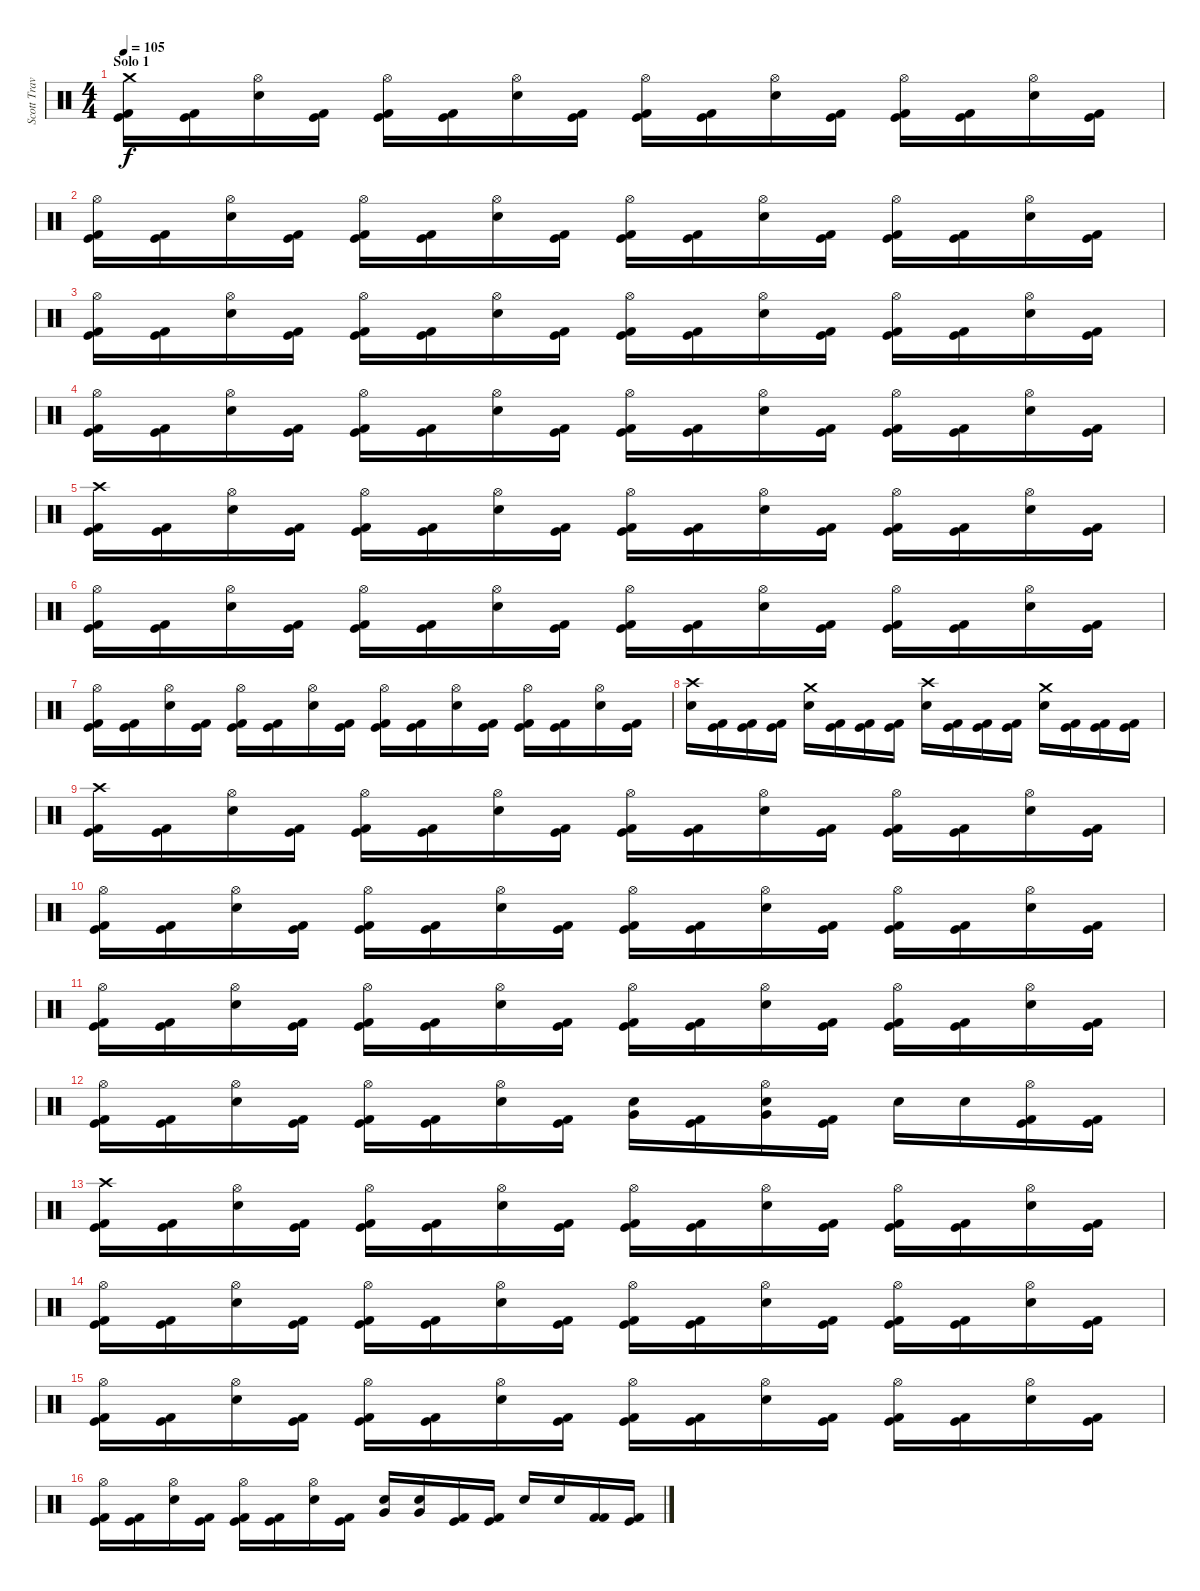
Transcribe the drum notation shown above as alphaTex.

\track ("Scott Travis" "Scott Trav") {instrument percussion}
\staff {score}
\articulation defaults
\ts (4 4)
\section ("" "Solo 1")
\tempo 105
\clef neutral
\ks c
("Crash medium (hit)" "Kick (hit) 2" "Kick (hit)").16{dy f} ("Kick (hit) 2" "Kick (hit)").16 ("Hi-Hat (open)" "Snare (hit) 2").16 ("Kick (hit) 2" "Kick (hit)").16 ("Hi-Hat (open)" "Kick (hit) 2" "Kick (hit)").16 ("Kick (hit) 2" "Kick (hit)").16 ("Hi-Hat (open)" "Snare (hit) 2").16 ("Kick (hit) 2" "Kick (hit)").16 ("Hi-Hat (open)" "Kick (hit) 2" "Kick (hit)").16 ("Kick (hit) 2" "Kick (hit)").16 ("Hi-Hat (open)" "Snare (hit) 2").16 ("Kick (hit) 2" "Kick (hit)").16 ("Hi-Hat (open)" "Kick (hit) 2" "Kick (hit)").16 ("Kick (hit) 2" "Kick (hit)").16 ("Hi-Hat (open)" "Snare (hit) 2").16 ("Kick (hit) 2" "Kick (hit)").16 |
("Hi-Hat (open)" "Kick (hit) 2" "Kick (hit)").16 ("Kick (hit) 2" "Kick (hit)").16 ("Hi-Hat (open)" "Snare (hit) 2").16 ("Kick (hit) 2" "Kick (hit)").16 ("Hi-Hat (open)" "Kick (hit) 2" "Kick (hit)").16 ("Kick (hit) 2" "Kick (hit)").16 ("Hi-Hat (open)" "Snare (hit) 2").16 ("Kick (hit) 2" "Kick (hit)").16 ("Hi-Hat (open)" "Kick (hit) 2" "Kick (hit)").16 ("Kick (hit) 2" "Kick (hit)").16 ("Hi-Hat (open)" "Snare (hit) 2").16 ("Kick (hit) 2" "Kick (hit)").16 ("Hi-Hat (open)" "Kick (hit) 2" "Kick (hit)").16 ("Kick (hit) 2" "Kick (hit)").16 ("Hi-Hat (open)" "Snare (hit) 2").16 ("Kick (hit) 2" "Kick (hit)").16 |
("Hi-Hat (open)" "Kick (hit) 2" "Kick (hit)").16 ("Kick (hit) 2" "Kick (hit)").16 ("Hi-Hat (open)" "Snare (hit) 2").16 ("Kick (hit) 2" "Kick (hit)").16 ("Hi-Hat (open)" "Kick (hit) 2" "Kick (hit)").16 ("Kick (hit) 2" "Kick (hit)").16 ("Hi-Hat (open)" "Snare (hit) 2").16 ("Kick (hit) 2" "Kick (hit)").16 ("Hi-Hat (open)" "Kick (hit) 2" "Kick (hit)").16 ("Kick (hit) 2" "Kick (hit)").16 ("Hi-Hat (open)" "Snare (hit) 2").16 ("Kick (hit) 2" "Kick (hit)").16 ("Hi-Hat (open)" "Kick (hit) 2" "Kick (hit)").16 ("Kick (hit) 2" "Kick (hit)").16 ("Hi-Hat (open)" "Snare (hit) 2").16 ("Kick (hit) 2" "Kick (hit)").16 |
("Hi-Hat (open)" "Kick (hit) 2" "Kick (hit)").16 ("Kick (hit) 2" "Kick (hit)").16 ("Hi-Hat (open)" "Snare (hit) 2").16 ("Kick (hit) 2" "Kick (hit)").16 ("Hi-Hat (open)" "Kick (hit) 2" "Kick (hit)").16 ("Kick (hit) 2" "Kick (hit)").16 ("Hi-Hat (open)" "Snare (hit) 2").16 ("Kick (hit) 2" "Kick (hit)").16 ("Hi-Hat (open)" "Kick (hit) 2" "Kick (hit)").16 ("Kick (hit) 2" "Kick (hit)").16 ("Hi-Hat (open)" "Snare (hit) 2").16 ("Kick (hit) 2" "Kick (hit)").16 ("Hi-Hat (open)" "Kick (hit) 2" "Kick (hit)").16 ("Kick (hit) 2" "Kick (hit)").16 ("Hi-Hat (open)" "Snare (hit) 2").16 ("Kick (hit) 2" "Kick (hit)").16 |
("Crash high (hit)" "Kick (hit) 2" "Kick (hit)").16 ("Kick (hit) 2" "Kick (hit)").16 ("Hi-Hat (open)" "Snare (hit) 2").16 ("Kick (hit) 2" "Kick (hit)").16 ("Hi-Hat (open)" "Kick (hit) 2" "Kick (hit)").16 ("Kick (hit) 2" "Kick (hit)").16 ("Hi-Hat (open)" "Snare (hit) 2").16 ("Kick (hit) 2" "Kick (hit)").16 ("Hi-Hat (open)" "Kick (hit) 2" "Kick (hit)").16 ("Kick (hit) 2" "Kick (hit)").16 ("Hi-Hat (open)" "Snare (hit) 2").16 ("Kick (hit) 2" "Kick (hit)").16 ("Hi-Hat (open)" "Kick (hit) 2" "Kick (hit)").16 ("Kick (hit) 2" "Kick (hit)").16 ("Hi-Hat (open)" "Snare (hit) 2").16 ("Kick (hit) 2" "Kick (hit)").16 |
("Hi-Hat (open)" "Kick (hit) 2" "Kick (hit)").16 ("Kick (hit) 2" "Kick (hit)").16 ("Hi-Hat (open)" "Snare (hit) 2").16 ("Kick (hit) 2" "Kick (hit)").16 ("Hi-Hat (open)" "Kick (hit) 2" "Kick (hit)").16 ("Kick (hit) 2" "Kick (hit)").16 ("Hi-Hat (open)" "Snare (hit) 2").16 ("Kick (hit) 2" "Kick (hit)").16 ("Hi-Hat (open)" "Kick (hit) 2" "Kick (hit)").16 ("Kick (hit) 2" "Kick (hit)").16 ("Hi-Hat (open)" "Snare (hit) 2").16 ("Kick (hit) 2" "Kick (hit)").16 ("Hi-Hat (open)" "Kick (hit) 2" "Kick (hit)").16 ("Kick (hit) 2" "Kick (hit)").16 ("Hi-Hat (open)" "Snare (hit) 2").16 ("Kick (hit) 2" "Kick (hit)").16 |
("Hi-Hat (open)" "Kick (hit) 2" "Kick (hit)").16 ("Kick (hit) 2" "Kick (hit)").16 ("Hi-Hat (open)" "Snare (hit) 2").16 ("Kick (hit) 2" "Kick (hit)").16 ("Hi-Hat (open)" "Kick (hit) 2" "Kick (hit)").16 ("Kick (hit) 2" "Kick (hit)").16 ("Hi-Hat (open)" "Snare (hit) 2").16 ("Kick (hit) 2" "Kick (hit)").16 ("Hi-Hat (open)" "Kick (hit) 2" "Kick (hit)").16 ("Kick (hit) 2" "Kick (hit)").16 ("Hi-Hat (open)" "Snare (hit) 2").16 ("Kick (hit) 2" "Kick (hit)").16 ("Hi-Hat (open)" "Kick (hit) 2" "Kick (hit)").16 ("Kick (hit) 2" "Kick (hit)").16 ("Hi-Hat (open)" "Snare (hit) 2").16 ("Kick (hit) 2" "Kick (hit)").16 |
("Crash high (hit)" "Snare (hit) 2").16 ("Kick (hit) 2" "Kick (hit)").16 ("Kick (hit) 2" "Kick (hit)").16 ("Kick (hit) 2" "Kick (hit)").16 ("Crash medium (hit)" "Snare (hit) 2").16 ("Kick (hit) 2" "Kick (hit)").16 ("Kick (hit)" "Kick (hit) 2").16 ("Kick (hit) 2" "Kick (hit)").16 ("Crash high (hit)" "Snare (hit) 2").16 ("Kick (hit) 2" "Kick (hit)").16 ("Kick (hit)" "Kick (hit) 2").16 ("Kick (hit) 2" "Kick (hit)").16 ("Crash medium (hit)" "Snare (hit) 2").16 ("Kick (hit) 2" "Kick (hit)").16 ("Kick (hit) 2" "Kick (hit)").16 ("Kick (hit) 2" "Kick (hit)").16 |
("Crash high (hit)" "Kick (hit) 2" "Kick (hit)").16 ("Kick (hit) 2" "Kick (hit)").16 ("Hi-Hat (open)" "Snare (hit) 2").16 ("Kick (hit) 2" "Kick (hit)").16 ("Hi-Hat (open)" "Kick (hit) 2" "Kick (hit)").16 ("Kick (hit) 2" "Kick (hit)").16 ("Hi-Hat (open)" "Snare (hit) 2").16 ("Kick (hit) 2" "Kick (hit)").16 ("Hi-Hat (open)" "Kick (hit) 2" "Kick (hit)").16 ("Kick (hit) 2" "Kick (hit)").16 ("Hi-Hat (open)" "Snare (hit) 2").16 ("Kick (hit) 2" "Kick (hit)").16 ("Hi-Hat (open)" "Kick (hit) 2" "Kick (hit)").16 ("Kick (hit) 2" "Kick (hit)").16 ("Hi-Hat (open)" "Snare (hit) 2").16 ("Kick (hit) 2" "Kick (hit)").16 |
("Hi-Hat (open)" "Kick (hit) 2" "Kick (hit)").16 ("Kick (hit) 2" "Kick (hit)").16 ("Hi-Hat (open)" "Snare (hit) 2").16 ("Kick (hit) 2" "Kick (hit)").16 ("Hi-Hat (open)" "Kick (hit) 2" "Kick (hit)").16 ("Kick (hit) 2" "Kick (hit)").16 ("Hi-Hat (open)" "Snare (hit) 2").16 ("Kick (hit) 2" "Kick (hit)").16 ("Hi-Hat (open)" "Kick (hit) 2" "Kick (hit)").16 ("Kick (hit) 2" "Kick (hit)").16 ("Hi-Hat (open)" "Snare (hit) 2").16 ("Kick (hit) 2" "Kick (hit)").16 ("Hi-Hat (open)" "Kick (hit) 2" "Kick (hit)").16 ("Kick (hit) 2" "Kick (hit)").16 ("Hi-Hat (open)" "Snare (hit) 2").16 ("Kick (hit) 2" "Kick (hit)").16 |
("Hi-Hat (open)" "Kick (hit) 2" "Kick (hit)").16 ("Kick (hit) 2" "Kick (hit)").16 ("Hi-Hat (open)" "Snare (hit) 2").16 ("Kick (hit) 2" "Kick (hit)").16 ("Hi-Hat (open)" "Kick (hit) 2" "Kick (hit)").16 ("Kick (hit) 2" "Kick (hit)").16 ("Hi-Hat (open)" "Snare (hit) 2").16 ("Kick (hit) 2" "Kick (hit)").16 ("Hi-Hat (open)" "Kick (hit) 2" "Kick (hit)").16 ("Kick (hit) 2" "Kick (hit)").16 ("Hi-Hat (open)" "Snare (hit) 2").16 ("Kick (hit) 2" "Kick (hit)").16 ("Hi-Hat (open)" "Kick (hit) 2" "Kick (hit)").16 ("Kick (hit) 2" "Kick (hit)").16 ("Hi-Hat (open)" "Snare (hit) 2").16 ("Kick (hit) 2" "Kick (hit)").16 |
("Hi-Hat (open)" "Kick (hit) 2" "Kick (hit)").16 ("Kick (hit) 2" "Kick (hit)").16 ("Hi-Hat (open)" "Snare (hit) 2").16 ("Kick (hit) 2" "Kick (hit)").16 ("Hi-Hat (open)" "Kick (hit) 2" "Kick (hit)").16 ("Kick (hit) 2" "Kick (hit)").16 ("Hi-Hat (open)" "Snare (hit) 2").16 ("Kick (hit) 2" "Kick (hit)").16 ("Snare (hit) 2" "Very Low Tom (hit)").16 ("Kick (hit) 2" "Kick (hit)").16 ("Hi-Hat (open)" "Snare (hit) 2" "Very Low Tom (hit)").16 ("Kick (hit) 2" "Kick (hit)").16 "Snare (hit) 2".16 "Snare (hit) 2".16 ("Hi-Hat (open)" "Kick (hit)" "Kick (hit) 2").16 ("Kick (hit) 2" "Kick (hit)").16 |
("Crash high (hit)" "Kick (hit) 2" "Kick (hit)").16 ("Kick (hit) 2" "Kick (hit)").16 ("Hi-Hat (open)" "Snare (hit) 2").16 ("Kick (hit) 2" "Kick (hit)").16 ("Hi-Hat (open)" "Kick (hit) 2" "Kick (hit)").16 ("Kick (hit) 2" "Kick (hit)").16 ("Hi-Hat (open)" "Snare (hit) 2").16 ("Kick (hit) 2" "Kick (hit)").16 ("Hi-Hat (open)" "Kick (hit) 2" "Kick (hit)").16 ("Kick (hit) 2" "Kick (hit)").16 ("Hi-Hat (open)" "Snare (hit) 2").16 ("Kick (hit) 2" "Kick (hit)").16 ("Hi-Hat (open)" "Kick (hit) 2" "Kick (hit)").16 ("Kick (hit) 2" "Kick (hit)").16 ("Hi-Hat (open)" "Snare (hit) 2").16 ("Kick (hit) 2" "Kick (hit)").16 |
("Hi-Hat (open)" "Kick (hit) 2" "Kick (hit)").16 ("Kick (hit) 2" "Kick (hit)").16 ("Hi-Hat (open)" "Snare (hit) 2").16 ("Kick (hit) 2" "Kick (hit)").16 ("Hi-Hat (open)" "Kick (hit) 2" "Kick (hit)").16 ("Kick (hit) 2" "Kick (hit)").16 ("Hi-Hat (open)" "Snare (hit) 2").16 ("Kick (hit) 2" "Kick (hit)").16 ("Hi-Hat (open)" "Kick (hit) 2" "Kick (hit)").16 ("Kick (hit) 2" "Kick (hit)").16 ("Hi-Hat (open)" "Snare (hit) 2").16 ("Kick (hit) 2" "Kick (hit)").16 ("Hi-Hat (open)" "Kick (hit) 2" "Kick (hit)").16 ("Kick (hit) 2" "Kick (hit)").16 ("Hi-Hat (open)" "Snare (hit) 2").16 ("Kick (hit) 2" "Kick (hit)").16 |
("Hi-Hat (open)" "Kick (hit) 2" "Kick (hit)").16 ("Kick (hit) 2" "Kick (hit)").16 ("Hi-Hat (open)" "Snare (hit) 2").16 ("Kick (hit) 2" "Kick (hit)").16 ("Hi-Hat (open)" "Kick (hit) 2" "Kick (hit)").16 ("Kick (hit) 2" "Kick (hit)").16 ("Hi-Hat (open)" "Snare (hit) 2").16 ("Kick (hit) 2" "Kick (hit)").16 ("Hi-Hat (open)" "Kick (hit) 2" "Kick (hit)").16 ("Kick (hit) 2" "Kick (hit)").16 ("Hi-Hat (open)" "Snare (hit) 2").16 ("Kick (hit) 2" "Kick (hit)").16 ("Hi-Hat (open)" "Kick (hit) 2" "Kick (hit)").16 ("Kick (hit) 2" "Kick (hit)").16 ("Hi-Hat (open)" "Snare (hit) 2").16 ("Kick (hit) 2" "Kick (hit)").16 |
("Hi-Hat (open)" "Kick (hit) 2" "Kick (hit)").16 ("Kick (hit) 2" "Kick (hit)").16 ("Hi-Hat (open)" "Snare (hit) 2").16 ("Kick (hit) 2" "Kick (hit)").16 ("Hi-Hat (open)" "Kick (hit) 2" "Kick (hit)").16 ("Kick (hit) 2" "Kick (hit)").16 ("Hi-Hat (open)" "Snare (hit) 2").16 ("Kick (hit) 2" "Kick (hit)").16 ("Snare (hit) 2" "Very Low Tom (hit)").16 ("Snare (hit) 2" "Very Low Tom (hit)").16 ("Kick (hit)" "Kick (hit) 2").16 ("Kick (hit) 2" "Kick (hit)").16 "Snare (hit) 2".16 "Snare (hit) 2".16 ("Kick (hit) 2" "Kick (hit) 2").16 ("Kick (hit) 2" "Kick (hit)").16
